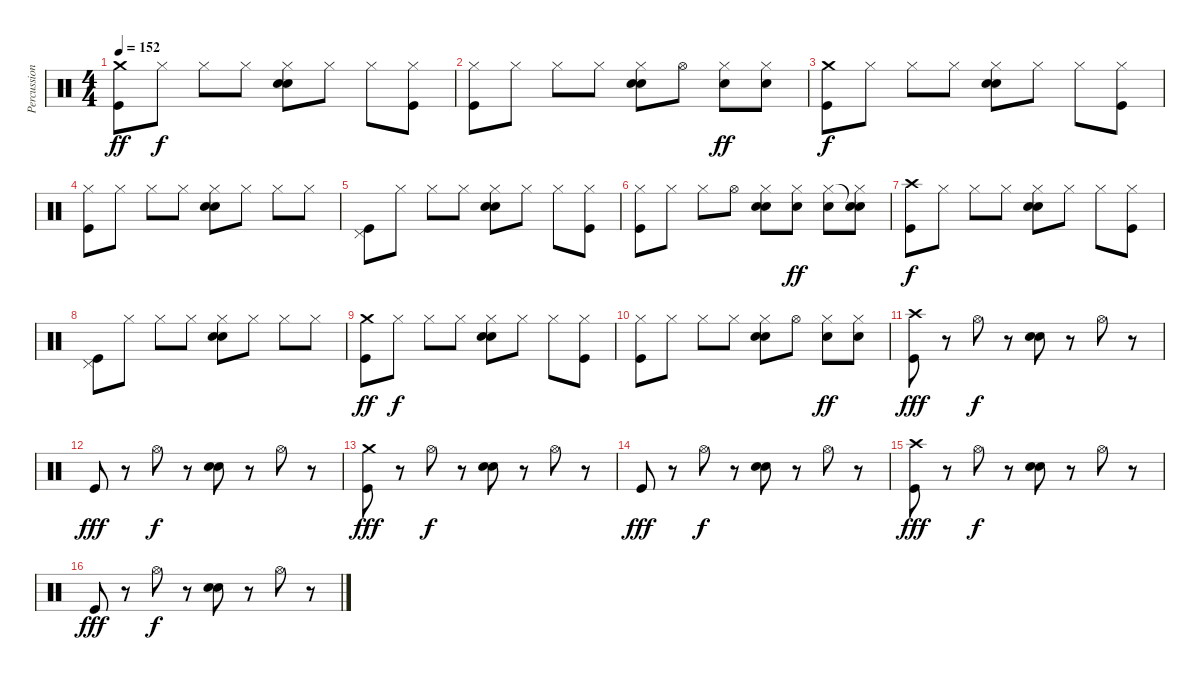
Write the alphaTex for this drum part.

\track ("Percussion" "Percussion") {instrument percussion}
\staff {score}
\articulation defaults
\ts (4 4)
\tempo 152
\clef neutral
\ks c
("Crash medium (hit)" "Kick (hit)").8{dy ff} "Hi-Hat (closed)".8{dy f} "Hi-Hat (closed)".8 "Hi-Hat (closed)".8 ("Hi-Hat (closed)" "Snare (hit) 2" "Electric Snare (hit)").8 "Hi-Hat (closed)".8 "Hi-Hat (closed)".8 ("Hi-Hat (closed)" "Kick (hit)").8 |
("Hi-Hat (closed)" "Kick (hit)").8 "Hi-Hat (closed)".8 "Hi-Hat (closed)".8 "Hi-Hat (closed)".8 ("Hi-Hat (closed)" "Snare (hit) 2" "Electric Snare (hit)").8 "Hi-Hat (open)".8 ("Hi-Hat (closed)" "Snare (hit) 2").8{dy ff} ("Hi-Hat (closed)" "Snare (hit) 2").8 |
("Crash medium (hit)" "Kick (hit)").8{dy f} "Hi-Hat (closed)".8 "Hi-Hat (closed)".8 "Hi-Hat (closed)".8 ("Hi-Hat (closed)" "Snare (hit) 2" "Electric Snare (hit)").8 "Hi-Hat (closed)".8 "Hi-Hat (closed)".8 ("Hi-Hat (closed)" "Kick (hit)").8 |
("Hi-Hat (closed)" "Kick (hit)").8 "Hi-Hat (closed)".8 "Hi-Hat (closed)".8 "Hi-Hat (closed)".8 ("Hi-Hat (closed)" "Snare (hit) 2" "Electric Snare (hit)").8 "Hi-Hat (closed)".8 "Hi-Hat (closed)".8 "Hi-Hat (closed)".8 |
("Pedal Hi-Hat (hit)" "Kick (hit)").8 "Hi-Hat (closed)".8 "Hi-Hat (closed)".8 "Hi-Hat (closed)".8 ("Hi-Hat (closed)" "Snare (hit) 2" "Electric Snare (hit)").8 "Hi-Hat (closed)".8 "Hi-Hat (closed)".8 ("Hi-Hat (closed)" "Kick (hit)").8 |
("Hi-Hat (closed)" "Kick (hit)").8 "Hi-Hat (closed)".8 "Hi-Hat (closed)".8 "Hi-Hat (open)".8 ("Hi-Hat (closed)" "Snare (hit) 2" "Electric Snare (hit)").8 ("Hi-Hat (closed)" "Snare (hit) 2").8{dy ff} ("Hi-Hat (closed)" "Snare (hit) 2").8 ("Snare (hit)"{t} "Hi-Hat (closed)" "Snare (hit) 2").8 |
("Crash high (hit)" "Kick (hit)").8{dy f} "Hi-Hat (closed)".8 "Hi-Hat (closed)".8 "Hi-Hat (closed)".8 ("Hi-Hat (closed)" "Snare (hit) 2" "Electric Snare (hit)").8 "Hi-Hat (closed)".8 "Hi-Hat (closed)".8 ("Hi-Hat (closed)" "Kick (hit)").8 |
("Pedal Hi-Hat (hit)" "Kick (hit)").8 "Hi-Hat (closed)".8 "Hi-Hat (closed)".8 "Hi-Hat (closed)".8 ("Hi-Hat (closed)" "Snare (hit) 2" "Electric Snare (hit)").8 "Hi-Hat (closed)".8 "Hi-Hat (closed)".8 "Hi-Hat (closed)".8 |
("Crash medium (hit)" "Kick (hit)").8{dy ff} "Hi-Hat (closed)".8{dy f} "Hi-Hat (closed)".8 "Hi-Hat (closed)".8 ("Hi-Hat (closed)" "Snare (hit) 2" "Electric Snare (hit)").8 "Hi-Hat (closed)".8 "Hi-Hat (closed)".8 ("Hi-Hat (closed)" "Kick (hit)").8 |
("Hi-Hat (closed)" "Kick (hit)").8 "Hi-Hat (closed)".8 "Hi-Hat (closed)".8 "Hi-Hat (closed)".8 ("Hi-Hat (closed)" "Snare (hit) 2" "Electric Snare (hit)").8 "Hi-Hat (open)".8 ("Hi-Hat (closed)" "Snare (hit) 2").8{dy ff} ("Hi-Hat (closed)" "Snare (hit) 2").8 |
("Crash high (hit)" "Kick (hit)").8{dy fff} r.8 "Hi-Hat (open)".8{dy f} r.8 ("Snare (hit) 2" "Electric Snare (hit)").8 r.8 "Hi-Hat (open)".8 r.8 |
"Kick (hit)".8{dy fff} r.8 "Hi-Hat (open)".8{dy f} r.8 ("Snare (hit) 2" "Electric Snare (hit)").8 r.8 "Hi-Hat (open)".8 r.8 |
("Crash medium (hit)" "Kick (hit)").8{dy fff} r.8 "Hi-Hat (open)".8{dy f} r.8 ("Snare (hit) 2" "Electric Snare (hit)").8 r.8 "Hi-Hat (open)".8 r.8 |
"Kick (hit)".8{dy fff} r.8 "Hi-Hat (open)".8{dy f} r.8 ("Snare (hit) 2" "Electric Snare (hit)").8 r.8 "Hi-Hat (open)".8 r.8 |
("Crash high (hit)" "Kick (hit)").8{dy fff} r.8 "Hi-Hat (open)".8{dy f} r.8 ("Snare (hit) 2" "Electric Snare (hit)").8 r.8 "Hi-Hat (open)".8 r.8 |
"Kick (hit)".8{dy fff} r.8 "Hi-Hat (open)".8{dy f} r.8 ("Snare (hit) 2" "Electric Snare (hit)").8 r.8 "Hi-Hat (open)".8 r.8
